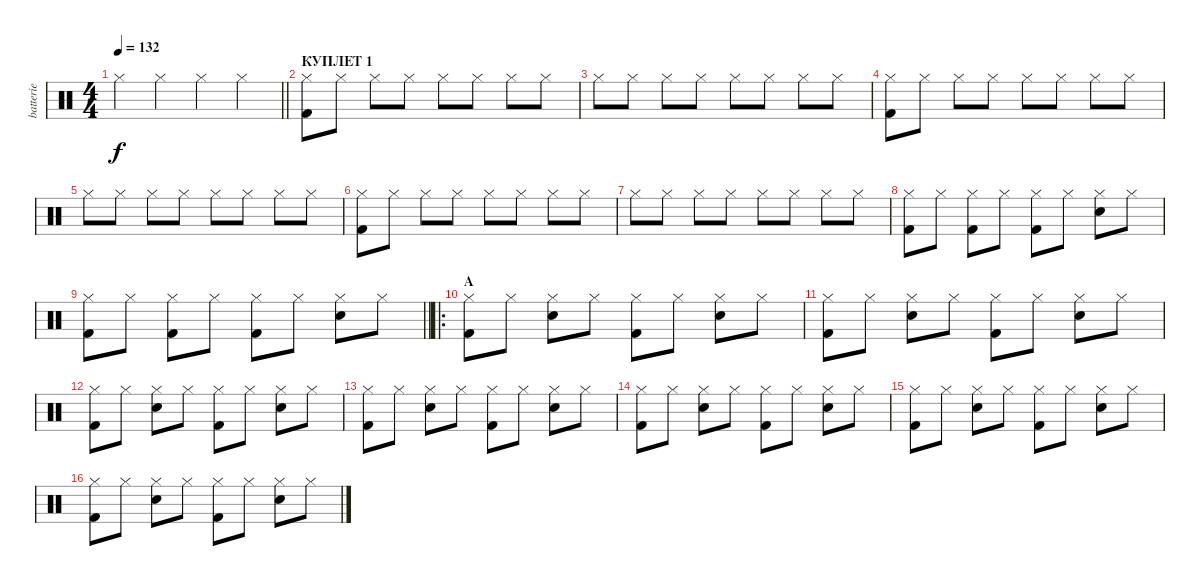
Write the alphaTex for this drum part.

\track ("batterie" "batterie") {instrument percussion}
\staff {score}
\articulation defaults
\ts (4 4)
\tempo 132
\clef neutral
\barLineRight lightlight
\ks c "Hi-Hat (closed)".4{dy f} "Hi-Hat (closed)".4 "Hi-Hat (closed)".4 "Hi-Hat (closed)".4
|
\section ("" "КУПЛЕТ 1")
("Hi-Hat (closed)" "Kick (hit) 2").8 "Hi-Hat (closed)".8 "Hi-Hat (closed)".8 "Hi-Hat (closed)".8 "Hi-Hat (closed)".8 "Hi-Hat (closed)".8 "Hi-Hat (closed)".8 "Hi-Hat (closed)".8 |
"Hi-Hat (closed)".8 "Hi-Hat (closed)".8 "Hi-Hat (closed)".8 "Hi-Hat (closed)".8 "Hi-Hat (closed)".8 "Hi-Hat (closed)".8 "Hi-Hat (closed)".8 "Hi-Hat (closed)".8 |
("Hi-Hat (closed)" "Kick (hit) 2").8 "Hi-Hat (closed)".8 "Hi-Hat (closed)".8 "Hi-Hat (closed)".8 "Hi-Hat (closed)".8 "Hi-Hat (closed)".8 "Hi-Hat (closed)".8 "Hi-Hat (closed)".8 |
"Hi-Hat (closed)".8 "Hi-Hat (closed)".8 "Hi-Hat (closed)".8 "Hi-Hat (closed)".8 "Hi-Hat (closed)".8 "Hi-Hat (closed)".8 "Hi-Hat (closed)".8 "Hi-Hat (closed)".8 |
("Hi-Hat (closed)" "Kick (hit) 2").8 "Hi-Hat (closed)".8 "Hi-Hat (closed)".8 "Hi-Hat (closed)".8 "Hi-Hat (closed)".8 "Hi-Hat (closed)".8 "Hi-Hat (closed)".8 "Hi-Hat (closed)".8 |
"Hi-Hat (closed)".8 "Hi-Hat (closed)".8 "Hi-Hat (closed)".8 "Hi-Hat (closed)".8 "Hi-Hat (closed)".8 "Hi-Hat (closed)".8 "Hi-Hat (closed)".8 "Hi-Hat (closed)".8 |
("Hi-Hat (closed)" "Kick (hit) 2").8 "Hi-Hat (closed)".8 ("Hi-Hat (closed)" "Kick (hit) 2").8 "Hi-Hat (closed)".8 ("Hi-Hat (closed)" "Kick (hit) 2").8 "Hi-Hat (closed)".8 ("Hi-Hat (closed)" "Electric Snare (hit)").8 "Hi-Hat (closed)".8 |
\barLineRight lightlight
("Hi-Hat (closed)" "Kick (hit) 2").8 "Hi-Hat (closed)".8 ("Hi-Hat (closed)" "Kick (hit) 2").8 "Hi-Hat (closed)".8 ("Hi-Hat (closed)" "Kick (hit) 2").8 "Hi-Hat (closed)".8 ("Hi-Hat (closed)" "Electric Snare (hit)").8 "Hi-Hat (closed)".8 |
\ro
\section ("" "А")
("Hi-Hat (closed)" "Kick (hit) 2").8 "Hi-Hat (closed)".8 ("Hi-Hat (closed)" "Electric Snare (hit)").8 "Hi-Hat (closed)".8 ("Hi-Hat (closed)" "Kick (hit) 2").8 "Hi-Hat (closed)".8 ("Hi-Hat (closed)" "Electric Snare (hit)").8 "Hi-Hat (closed)".8 |
("Hi-Hat (closed)" "Kick (hit) 2").8 "Hi-Hat (closed)".8 ("Hi-Hat (closed)" "Electric Snare (hit)").8 "Hi-Hat (closed)".8 ("Hi-Hat (closed)" "Kick (hit) 2").8 "Hi-Hat (closed)".8 ("Hi-Hat (closed)" "Electric Snare (hit)").8 "Hi-Hat (closed)".8 |
("Hi-Hat (closed)" "Kick (hit) 2").8 "Hi-Hat (closed)".8 ("Hi-Hat (closed)" "Electric Snare (hit)").8 "Hi-Hat (closed)".8 ("Hi-Hat (closed)" "Kick (hit) 2").8 "Hi-Hat (closed)".8 ("Hi-Hat (closed)" "Electric Snare (hit)").8 "Hi-Hat (closed)".8 |
("Hi-Hat (closed)" "Kick (hit) 2").8 "Hi-Hat (closed)".8 ("Hi-Hat (closed)" "Electric Snare (hit)").8 "Hi-Hat (closed)".8 ("Hi-Hat (closed)" "Kick (hit) 2").8 "Hi-Hat (closed)".8 ("Hi-Hat (closed)" "Electric Snare (hit)").8 "Hi-Hat (closed)".8 |
("Hi-Hat (closed)" "Kick (hit) 2").8 "Hi-Hat (closed)".8 ("Hi-Hat (closed)" "Electric Snare (hit)").8 "Hi-Hat (closed)".8 ("Hi-Hat (closed)" "Kick (hit) 2").8 "Hi-Hat (closed)".8 ("Hi-Hat (closed)" "Electric Snare (hit)").8 "Hi-Hat (closed)".8 |
("Hi-Hat (closed)" "Kick (hit) 2").8 "Hi-Hat (closed)".8 ("Hi-Hat (closed)" "Electric Snare (hit)").8 "Hi-Hat (closed)".8 ("Hi-Hat (closed)" "Kick (hit) 2").8 "Hi-Hat (closed)".8 ("Hi-Hat (closed)" "Electric Snare (hit)").8 "Hi-Hat (closed)".8 |
("Hi-Hat (closed)" "Kick (hit) 2").8 "Hi-Hat (closed)".8 ("Hi-Hat (closed)" "Electric Snare (hit)").8 "Hi-Hat (closed)".8 ("Hi-Hat (closed)" "Kick (hit) 2").8 "Hi-Hat (closed)".8 ("Hi-Hat (closed)" "Electric Snare (hit)").8 "Hi-Hat (closed)".8
